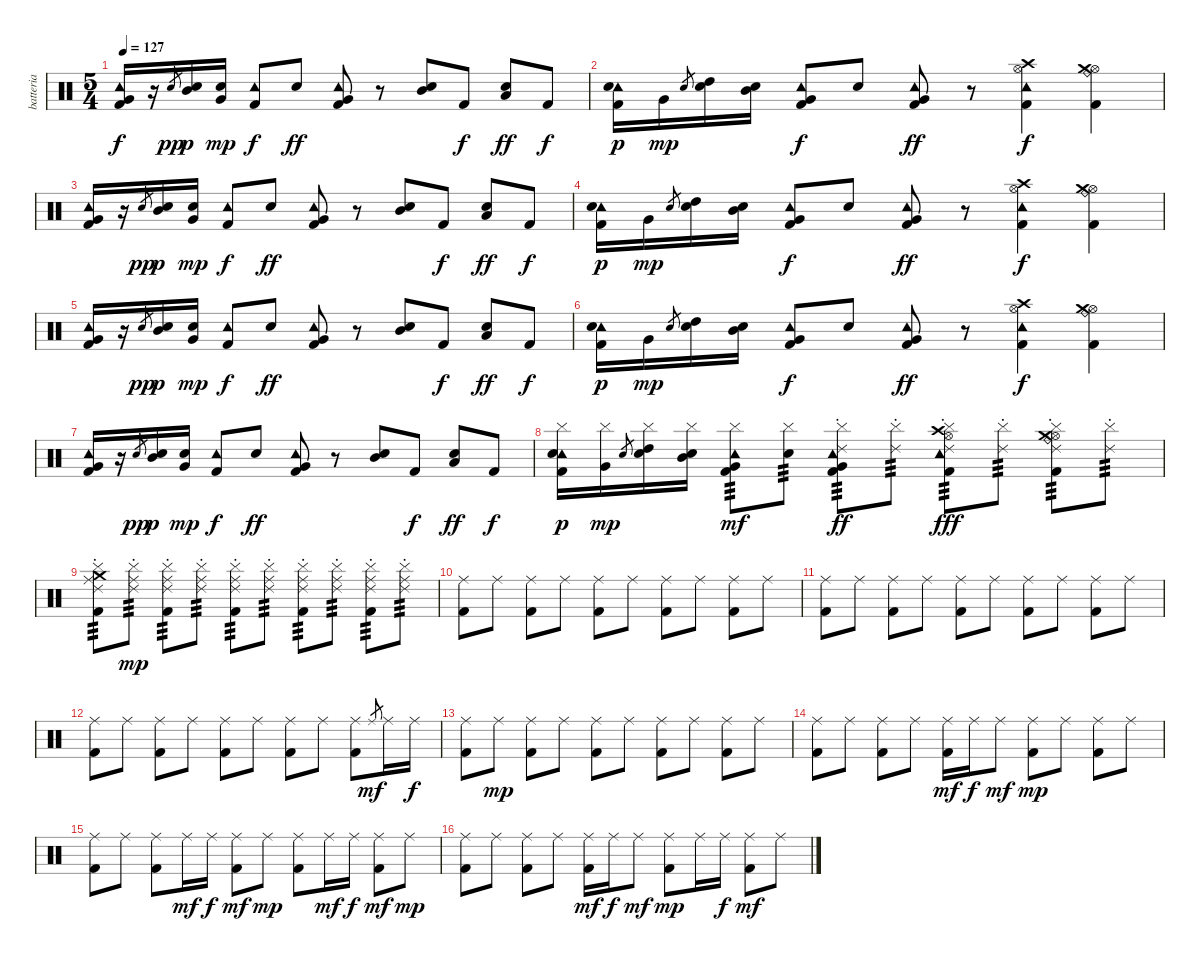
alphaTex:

\track ("batteria" "batteria") {instrument percussion}
\staff {score}
\articulation defaults
\ts (5 4)
\tempo 127
\clef neutral
\ks c
("Tambourine (hit)" "Very Low Tom (hit)" "Kick (hit) 2").16{dy f} r.16 "Electric Snare (hit)".8{gr dy pp} ("Electric Snare (hit)" "Mid Tom (hit)").16{dy p} ("Electric Snare (hit)" "Very Low Tom (hit)").16{dy mp} ("Tambourine (hit)" "Kick (hit) 2").8{dy f} "Electric Snare (hit)".8{dy ff} ("Tambourine (hit)" "Very Low Tom (hit)" "Kick (hit) 2").8 r.8 ("Electric Snare (hit)" "Mid Tom (hit)").8 "Kick (hit) 2".8{dy f} ("Electric Snare (hit)" "Low Tom (hit)").8{dy ff} "Kick (hit) 2".8{dy f} |
("Tambourine (hit)" "Electric Snare (hit)" "Kick (hit) 2").16{dy p} "Very Low Tom (hit)".16{dy mp} "Electric Snare (hit)".8{gr} ("High Tom (hit)" "Electric Snare (hit)").16 ("Electric Snare (hit)" "Mid Tom (hit)").16 ("Tambourine (hit)" "Very Low Tom (hit)" "Kick (hit) 2").8{dy f} "Electric Snare (hit)".8 ("Tambourine (hit)" "Very Low Tom (hit)" "Kick (hit) 2").8{dy ff} r.8 ("Hi-Hat (open)" "Tambourine (hit)" "Crash high (hit)" "Kick (hit) 2").4{dy f} ("Ride (bell)" "Hi-Hat (open)" "Crash medium (hit)" "Kick (hit) 2").4 |
("Tambourine (hit)" "Very Low Tom (hit)" "Kick (hit) 2").16 r.16 "Electric Snare (hit)".8{gr dy pp} ("Electric Snare (hit)" "Mid Tom (hit)").16{dy p} ("Electric Snare (hit)" "Very Low Tom (hit)").16{dy mp} ("Tambourine (hit)" "Kick (hit) 2").8{dy f} "Electric Snare (hit)".8{dy ff} ("Tambourine (hit)" "Very Low Tom (hit)" "Kick (hit) 2").8 r.8 ("Electric Snare (hit)" "Mid Tom (hit)").8 "Kick (hit) 2".8{dy f} ("Electric Snare (hit)" "Low Tom (hit)").8{dy ff} "Kick (hit) 2".8{dy f} |
("Tambourine (hit)" "Electric Snare (hit)" "Kick (hit) 2").16{dy p} "Very Low Tom (hit)".16{dy mp} "Electric Snare (hit)".8{gr} ("High Tom (hit)" "Electric Snare (hit)").16 ("Electric Snare (hit)" "Mid Tom (hit)").16 ("Tambourine (hit)" "Very Low Tom (hit)" "Kick (hit) 2").8{dy f} "Electric Snare (hit)".8 ("Tambourine (hit)" "Very Low Tom (hit)" "Kick (hit) 2").8{dy ff} r.8 ("Hi-Hat (open)" "Tambourine (hit)" "Crash high (hit)" "Kick (hit) 2").4{dy f} ("Ride (bell)" "Hi-Hat (open)" "Crash medium (hit)" "Kick (hit) 2").4 |
("Tambourine (hit)" "Very Low Tom (hit)" "Kick (hit) 2").16 r.16 "Electric Snare (hit)".8{gr dy pp} ("Electric Snare (hit)" "Mid Tom (hit)").16{dy p} ("Electric Snare (hit)" "Very Low Tom (hit)").16{dy mp} ("Tambourine (hit)" "Kick (hit) 2").8{dy f} "Electric Snare (hit)".8{dy ff} ("Tambourine (hit)" "Very Low Tom (hit)" "Kick (hit) 2").8 r.8 ("Electric Snare (hit)" "Mid Tom (hit)").8 "Kick (hit) 2".8{dy f} ("Electric Snare (hit)" "Low Tom (hit)").8{dy ff} "Kick (hit) 2".8{dy f} |
("Tambourine (hit)" "Electric Snare (hit)" "Kick (hit) 2").16{dy p} "Very Low Tom (hit)".16{dy mp} "Electric Snare (hit)".8{gr} ("High Tom (hit)" "Electric Snare (hit)").16 ("Electric Snare (hit)" "Mid Tom (hit)").16 ("Tambourine (hit)" "Very Low Tom (hit)" "Kick (hit) 2").8{dy f} "Electric Snare (hit)".8 ("Tambourine (hit)" "Very Low Tom (hit)" "Kick (hit) 2").8{dy ff} r.8 ("Hi-Hat (open)" "Tambourine (hit)" "Crash high (hit)" "Kick (hit) 2").4{dy f} ("Ride (bell)" "Hi-Hat (open)" "Crash medium (hit)" "Kick (hit) 2").4 |
("Tambourine (hit)" "Very Low Tom (hit)" "Kick (hit) 2").16 r.16 "Electric Snare (hit)".8{gr dy pp} ("Electric Snare (hit)" "Mid Tom (hit)").16{dy p} ("Electric Snare (hit)" "Very Low Tom (hit)").16{dy mp} ("Tambourine (hit)" "Kick (hit) 2").8{dy f} "Electric Snare (hit)".8{dy ff} ("Tambourine (hit)" "Very Low Tom (hit)" "Kick (hit) 2").8 r.8 ("Electric Snare (hit)" "Mid Tom (hit)").8 "Kick (hit) 2".8{dy f} ("Electric Snare (hit)" "Low Tom (hit)").8{dy ff} "Kick (hit) 2".8{dy f} |
("Cymbal (hit)" "Tambourine (hit)" "Electric Snare (hit)" "Kick (hit) 2").16{dy p} ("Cymbal (hit)" "Very Low Tom (hit)").16{dy mp} "Electric Snare (hit)".8{gr} ("Cymbal (hit)" "High Tom (hit)" "Electric Snare (hit)").16 ("Cymbal (hit)" "Electric Snare (hit)" "Mid Tom (hit)").16 ("Cymbal (hit)" "Tambourine (hit)" "Very Low Tom (hit)" "Kick (hit) 2").8{tp 3 dy mf} ("Cymbal (hit)" "Electric Snare (hit)").8{tp 3} ("Ride (choke) 2" "Cymbal (hit)" "Tambourine (hit)" "Very Low Tom (hit)" "Kick (hit) 2").8{tp 3 dy ff} ("Cymbal (hit)" "Ride (choke) 2").8{tp 3} ("Hi-Hat (open)" "Tambourine (hit)" "Crash high (hit)" "Ride (choke) 2" "Cymbal (hit)" "Kick (hit) 2").8{tp 3 dy fff} ("Ride (choke) 2" "Cymbal (hit)").8{tp 3} ("Ride (bell)" "Hi-Hat (open)" "Crash medium (hit)" "Ride (choke) 2" "Cymbal (hit)" "Kick (hit) 2").8{tp 3} ("Ride (choke) 2" "Cymbal (hit)").8{tp 3} |
("Ride (choke) 2" "Crash medium (hit)" "Ride (middle)" "Cymbal (hit)" "Kick (hit) 2").8{tp 3} ("Ride (choke) 2" "Cymbal (hit)" "Ride (middle)").8{tp 3 dy mp} ("Ride (choke) 2" "Cymbal (hit)" "Ride (middle)" "Kick (hit) 2").8{tp 3} ("Ride (choke) 2" "Cymbal (hit)" "Ride (middle)").8{tp 3} ("Ride (choke) 2" "Cymbal (hit)" "Ride (middle)" "Kick (hit) 2").8{tp 3} ("Ride (choke) 2" "Cymbal (hit)" "Ride (middle)").8{tp 3} ("Ride (choke) 2" "Cymbal (hit)" "Ride (middle)" "Kick (hit) 2").8{tp 3} ("Ride (choke) 2" "Cymbal (hit)" "Ride (middle)").8{tp 3} ("Ride (choke) 2" "Cymbal (hit)" "Ride (middle)" "Kick (hit) 2").8{tp 3} ("Ride (choke) 2" "Cymbal (hit)" "Ride (middle)").8{tp 3} |
("Ride (middle)" "Kick (hit) 2").8 "Ride (middle)".8 ("Ride (middle)" "Kick (hit) 2").8 "Ride (middle)".8 ("Ride (middle)" "Kick (hit) 2").8 "Ride (middle)".8 ("Ride (middle)" "Kick (hit) 2").8 "Ride (middle)".8 ("Ride (middle)" "Kick (hit) 2").8 "Ride (middle)".8 |
("Ride (middle)" "Kick (hit) 2").8 "Ride (middle)".8 ("Ride (middle)" "Kick (hit) 2").8 "Ride (middle)".8 ("Ride (middle)" "Kick (hit) 2").8 "Ride (middle)".8 ("Ride (middle)" "Kick (hit) 2").8 "Ride (middle)".8 ("Ride (middle)" "Kick (hit) 2").8 "Ride (middle)".8 |
("Ride (middle)" "Kick (hit) 2").8 "Ride (middle)".8 ("Ride (middle)" "Kick (hit) 2").8 "Ride (middle)".8 ("Ride (middle)" "Kick (hit) 2").8 "Ride (middle)".8 ("Ride (middle)" "Kick (hit) 2").8 "Ride (middle)".8 ("Ride (middle)" "Kick (hit) 2").8 "Ride (middle)".8{gr dy mf} "Ride (middle)".16 "Ride (middle)".16{dy f} |
("Ride (middle)" "Kick (hit) 2").8 "Ride (middle)".8{dy mp} ("Ride (middle)" "Kick (hit) 2").8 "Ride (middle)".8 ("Ride (middle)" "Kick (hit) 2").8 "Ride (middle)".8 ("Ride (middle)" "Kick (hit) 2").8 "Ride (middle)".8 ("Ride (middle)" "Kick (hit) 2").8 "Ride (middle)".8 |
("Ride (middle)" "Kick (hit) 2").8 "Ride (middle)".8 ("Ride (middle)" "Kick (hit) 2").8 "Ride (middle)".8 ("Ride (middle)" "Kick (hit) 2").16{dy mf} "Ride (middle)".16{dy f} "Ride (middle)".8{dy mf} ("Ride (middle)" "Kick (hit) 2").8{dy mp} "Ride (middle)".8 ("Ride (middle)" "Kick (hit) 2").8 "Ride (middle)".8 |
("Ride (middle)" "Kick (hit) 2").8 "Ride (middle)".8 ("Ride (middle)" "Kick (hit) 2").8 "Ride (middle)".16{dy mf} "Ride (middle)".16{dy f} ("Ride (middle)" "Kick (hit) 2").8{dy mf} "Ride (middle)".8{dy mp} ("Ride (middle)" "Kick (hit) 2").8 "Ride (middle)".16{dy mf} "Ride (middle)".16{dy f} ("Ride (middle)" "Kick (hit) 2").8{dy mf} "Ride (middle)".8{dy mp} |
("Ride (middle)" "Kick (hit) 2").8 "Ride (middle)".8 ("Ride (middle)" "Kick (hit) 2").8 "Ride (middle)".8 ("Ride (middle)" "Kick (hit) 2").16{dy mf} "Ride (middle)".16{dy f} "Ride (middle)".8{dy mf} ("Ride (middle)" "Kick (hit) 2").8{dy mp} "Ride (middle)".16 "Ride (middle)".16{dy f} ("Ride (middle)" "Kick (hit) 2").8{dy mf} "Ride (middle)".8
